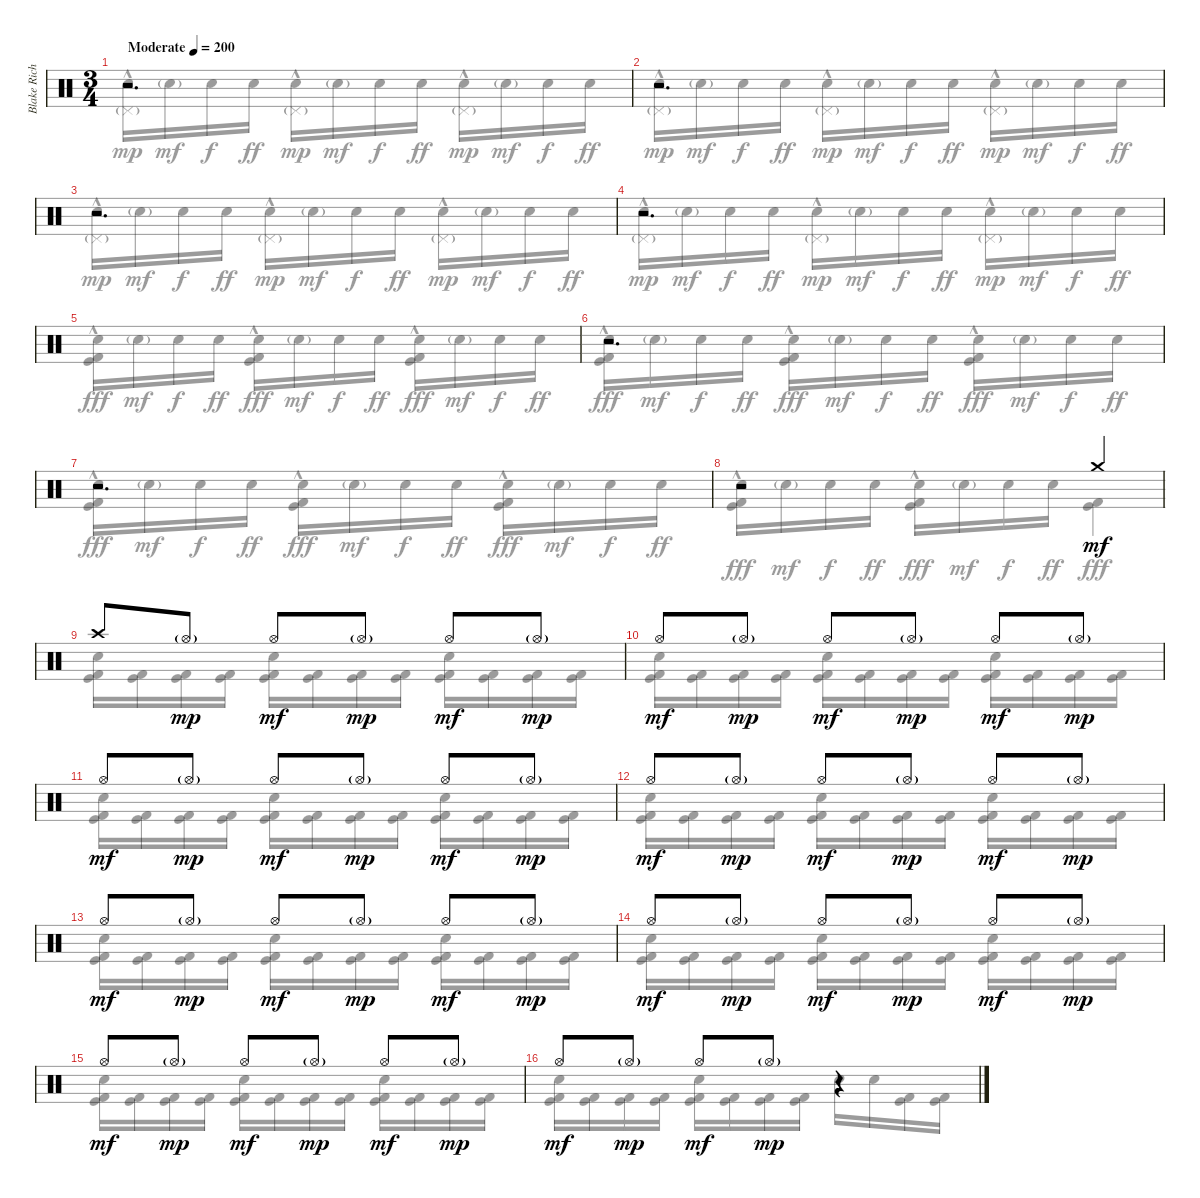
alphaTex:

\track ("Blake Richardson Drums" "Blake Rich") {instrument percussion}
\staff {score}
\articulation defaults
\voice
\ts (3 4)
\tempo (200 "Moderate")
\clef neutral
\ks c
r.2{d dy mf volume 8} |
r.2{d} |
r.2{d} |
r.2{d} |
|
r.2{d} |
r.2{d} |
r.2 "Crash medium (hit)".4 |
"Crash high (hit)".8 "Hi-Hat (open)"{g}.8{dy mp} "Hi-Hat (open)".8{dy mf} "Hi-Hat (open)"{g}.8{dy mp} "Hi-Hat (open)".8{dy mf} "Hi-Hat (open)"{g}.8{dy mp} |
"Hi-Hat (open)".8{dy mf} "Hi-Hat (open)"{g}.8{dy mp} "Hi-Hat (open)".8{dy mf} "Hi-Hat (open)"{g}.8{dy mp} "Hi-Hat (open)".8{dy mf} "Hi-Hat (open)"{g}.8{dy mp} |
"Hi-Hat (open)".8{dy mf} "Hi-Hat (open)"{g}.8{dy mp} "Hi-Hat (open)".8{dy mf} "Hi-Hat (open)"{g}.8{dy mp} "Hi-Hat (open)".8{dy mf} "Hi-Hat (open)"{g}.8{dy mp} |
"Hi-Hat (open)".8{dy mf} "Hi-Hat (open)"{g}.8{dy mp} "Hi-Hat (open)".8{dy mf} "Hi-Hat (open)"{g}.8{dy mp} "Hi-Hat (open)".8{dy mf} "Hi-Hat (open)"{g}.8{dy mp} |
"Hi-Hat (open)".8{dy mf} "Hi-Hat (open)"{g}.8{dy mp} "Hi-Hat (open)".8{dy mf} "Hi-Hat (open)"{g}.8{dy mp} "Hi-Hat (open)".8{dy mf} "Hi-Hat (open)"{g}.8{dy mp} |
"Hi-Hat (open)".8{dy mf} "Hi-Hat (open)"{g}.8{dy mp} "Hi-Hat (open)".8{dy mf} "Hi-Hat (open)"{g}.8{dy mp} "Hi-Hat (open)".8{dy mf} "Hi-Hat (open)"{g}.8{dy mp} |
"Hi-Hat (open)".8{dy mf} "Hi-Hat (open)"{g}.8{dy mp} "Hi-Hat (open)".8{dy mf} "Hi-Hat (open)"{g}.8{dy mp} "Hi-Hat (open)".8{dy mf} "Hi-Hat (open)"{g}.8{dy mp} |
"Hi-Hat (open)".8{dy mf} "Hi-Hat (open)"{g}.8{dy mp} "Hi-Hat (open)".8{dy mf} "Hi-Hat (open)"{g}.8{dy mp} r.4
\voice
\clef neutral
\ottava regular
\simile none
\ks c
("Electric Snare (hit)"{hac} "Pedal Hi-Hat (hit)"{g}).16{dy mp} "Electric Snare (hit)"{g}.16{dy mf} "Electric Snare (hit)".16{dy f} "Electric Snare (hit)".16{dy ff} ("Electric Snare (hit)"{hac} "Pedal Hi-Hat (hit)"{g}).16{dy mp} "Electric Snare (hit)"{g}.16{dy mf} "Electric Snare (hit)".16{dy f} "Electric Snare (hit)".16{dy ff} ("Electric Snare (hit)"{hac} "Pedal Hi-Hat (hit)"{g}).16{dy mp} "Electric Snare (hit)"{g}.16{dy mf} "Electric Snare (hit)".16{dy f} "Electric Snare (hit)".16{dy ff} |
("Electric Snare (hit)"{hac} "Pedal Hi-Hat (hit)"{g}).16{dy mp} "Electric Snare (hit)"{g}.16{dy mf} "Electric Snare (hit)".16{dy f} "Electric Snare (hit)".16{dy ff} ("Electric Snare (hit)"{hac} "Pedal Hi-Hat (hit)"{g}).16{dy mp} "Electric Snare (hit)"{g}.16{dy mf} "Electric Snare (hit)".16{dy f} "Electric Snare (hit)".16{dy ff} ("Electric Snare (hit)"{hac} "Pedal Hi-Hat (hit)"{g}).16{dy mp} "Electric Snare (hit)"{g}.16{dy mf} "Electric Snare (hit)".16{dy f} "Electric Snare (hit)".16{dy ff} |
("Electric Snare (hit)"{hac} "Pedal Hi-Hat (hit)"{g}).16{dy mp} "Electric Snare (hit)"{g}.16{dy mf} "Electric Snare (hit)".16{dy f} "Electric Snare (hit)".16{dy ff} ("Electric Snare (hit)"{hac} "Pedal Hi-Hat (hit)"{g}).16{dy mp} "Electric Snare (hit)"{g}.16{dy mf} "Electric Snare (hit)".16{dy f} "Electric Snare (hit)".16{dy ff} ("Electric Snare (hit)"{hac} "Pedal Hi-Hat (hit)"{g}).16{dy mp} "Electric Snare (hit)"{g}.16{dy mf} "Electric Snare (hit)".16{dy f} "Electric Snare (hit)".16{dy ff} |
("Electric Snare (hit)"{hac} "Pedal Hi-Hat (hit)"{g}).16{dy mp} "Electric Snare (hit)"{g}.16{dy mf} "Electric Snare (hit)".16{dy f} "Electric Snare (hit)".16{dy ff} ("Electric Snare (hit)"{hac} "Pedal Hi-Hat (hit)"{g}).16{dy mp} "Electric Snare (hit)"{g}.16{dy mf} "Electric Snare (hit)".16{dy f} "Electric Snare (hit)".16{dy ff} ("Electric Snare (hit)"{hac} "Pedal Hi-Hat (hit)"{g}).16{dy mp} "Electric Snare (hit)"{g}.16{dy mf} "Electric Snare (hit)".16{dy f} "Electric Snare (hit)".16{dy ff} |
("Electric Snare (hit)"{hac} "Kick (hit)" "Kick (hit) 2").16{dy fff} "Electric Snare (hit)"{g}.16{dy mf} "Electric Snare (hit)".16{dy f} "Electric Snare (hit)".16{dy ff} ("Electric Snare (hit)"{hac} "Kick (hit)" "Kick (hit) 2").16{dy fff} "Electric Snare (hit)"{g}.16{dy mf} "Electric Snare (hit)".16{dy f} "Electric Snare (hit)".16{dy ff} ("Electric Snare (hit)"{hac} "Kick (hit)" "Kick (hit) 2").16{dy fff} "Electric Snare (hit)"{g}.16{dy mf} "Electric Snare (hit)".16{dy f} "Electric Snare (hit)".16{dy ff} |
("Electric Snare (hit)"{hac} "Kick (hit)" "Kick (hit) 2").16{dy fff} "Electric Snare (hit)"{g}.16{dy mf} "Electric Snare (hit)".16{dy f} "Electric Snare (hit)".16{dy ff} ("Electric Snare (hit)"{hac} "Kick (hit)" "Kick (hit) 2").16{dy fff} "Electric Snare (hit)"{g}.16{dy mf} "Electric Snare (hit)".16{dy f} "Electric Snare (hit)".16{dy ff} ("Electric Snare (hit)"{hac} "Kick (hit)" "Kick (hit) 2").16{dy fff} "Electric Snare (hit)"{g}.16{dy mf} "Electric Snare (hit)".16{dy f} "Electric Snare (hit)".16{dy ff} |
("Electric Snare (hit)"{hac} "Kick (hit)" "Kick (hit) 2").16{dy fff} "Electric Snare (hit)"{g}.16{dy mf} "Electric Snare (hit)".16{dy f} "Electric Snare (hit)".16{dy ff} ("Electric Snare (hit)"{hac} "Kick (hit)" "Kick (hit) 2").16{dy fff} "Electric Snare (hit)"{g}.16{dy mf} "Electric Snare (hit)".16{dy f} "Electric Snare (hit)".16{dy ff} ("Electric Snare (hit)"{hac} "Kick (hit)" "Kick (hit) 2").16{dy fff} "Electric Snare (hit)"{g}.16{dy mf} "Electric Snare (hit)".16{dy f} "Electric Snare (hit)".16{dy ff} |
("Electric Snare (hit)"{hac} "Kick (hit)" "Kick (hit) 2").16{dy fff} "Electric Snare (hit)"{g}.16{dy mf} "Electric Snare (hit)".16{dy f} "Electric Snare (hit)".16{dy ff} ("Electric Snare (hit)"{hac} "Kick (hit)" "Kick (hit) 2").16{dy fff} "Electric Snare (hit)"{g}.16{dy mf} "Electric Snare (hit)".16{dy f} "Electric Snare (hit)".16{dy ff} ("Kick (hit)" "Kick (hit) 2").4{dy fff} |
("Electric Snare (hit)" "Kick (hit)" "Kick (hit) 2").16 ("Kick (hit)" "Kick (hit) 2").16 ("Kick (hit)" "Kick (hit) 2").16 ("Kick (hit)" "Kick (hit) 2").16 ("Electric Snare (hit)" "Kick (hit)" "Kick (hit) 2").16 ("Kick (hit)" "Kick (hit) 2").16 ("Kick (hit)" "Kick (hit) 2").16 ("Kick (hit)" "Kick (hit) 2").16 ("Electric Snare (hit)" "Kick (hit)" "Kick (hit) 2").16 ("Kick (hit)" "Kick (hit) 2").16 ("Kick (hit)" "Kick (hit) 2").16 ("Kick (hit)" "Kick (hit) 2").16 |
("Electric Snare (hit)" "Kick (hit)" "Kick (hit) 2").16 ("Kick (hit)" "Kick (hit) 2").16 ("Kick (hit)" "Kick (hit) 2").16 ("Kick (hit)" "Kick (hit) 2").16 ("Electric Snare (hit)" "Kick (hit)" "Kick (hit) 2").16 ("Kick (hit)" "Kick (hit) 2").16 ("Kick (hit)" "Kick (hit) 2").16 ("Kick (hit)" "Kick (hit) 2").16 ("Electric Snare (hit)" "Kick (hit)" "Kick (hit) 2").16 ("Kick (hit)" "Kick (hit) 2").16 ("Kick (hit)" "Kick (hit) 2").16 ("Kick (hit)" "Kick (hit) 2").16 |
("Electric Snare (hit)" "Kick (hit)" "Kick (hit) 2").16 ("Kick (hit)" "Kick (hit) 2").16 ("Kick (hit)" "Kick (hit) 2").16 ("Kick (hit)" "Kick (hit) 2").16 ("Electric Snare (hit)" "Kick (hit)" "Kick (hit) 2").16 ("Kick (hit)" "Kick (hit) 2").16 ("Kick (hit)" "Kick (hit) 2").16 ("Kick (hit)" "Kick (hit) 2").16 ("Electric Snare (hit)" "Kick (hit)" "Kick (hit) 2").16 ("Kick (hit)" "Kick (hit) 2").16 ("Kick (hit)" "Kick (hit) 2").16 ("Kick (hit)" "Kick (hit) 2").16 |
("Electric Snare (hit)" "Kick (hit)" "Kick (hit) 2").16 ("Kick (hit)" "Kick (hit) 2").16 ("Kick (hit)" "Kick (hit) 2").16 ("Kick (hit)" "Kick (hit) 2").16 ("Electric Snare (hit)" "Kick (hit)" "Kick (hit) 2").16 ("Kick (hit)" "Kick (hit) 2").16 ("Kick (hit)" "Kick (hit) 2").16 ("Kick (hit)" "Kick (hit) 2").16 ("Electric Snare (hit)" "Kick (hit)" "Kick (hit) 2").16 ("Kick (hit)" "Kick (hit) 2").16 ("Kick (hit)" "Kick (hit) 2").16 ("Kick (hit)" "Kick (hit) 2").16 |
("Electric Snare (hit)" "Kick (hit)" "Kick (hit) 2").16 ("Kick (hit)" "Kick (hit) 2").16 ("Kick (hit)" "Kick (hit) 2").16 ("Kick (hit)" "Kick (hit) 2").16 ("Electric Snare (hit)" "Kick (hit)" "Kick (hit) 2").16 ("Kick (hit)" "Kick (hit) 2").16 ("Kick (hit)" "Kick (hit) 2").16 ("Kick (hit)" "Kick (hit) 2").16 ("Electric Snare (hit)" "Kick (hit)" "Kick (hit) 2").16 ("Kick (hit)" "Kick (hit) 2").16 ("Kick (hit)" "Kick (hit) 2").16 ("Kick (hit)" "Kick (hit) 2").16 |
("Electric Snare (hit)" "Kick (hit)" "Kick (hit) 2").16 ("Kick (hit)" "Kick (hit) 2").16 ("Kick (hit)" "Kick (hit) 2").16 ("Kick (hit)" "Kick (hit) 2").16 ("Electric Snare (hit)" "Kick (hit)" "Kick (hit) 2").16 ("Kick (hit)" "Kick (hit) 2").16 ("Kick (hit)" "Kick (hit) 2").16 ("Kick (hit)" "Kick (hit) 2").16 ("Electric Snare (hit)" "Kick (hit)" "Kick (hit) 2").16 ("Kick (hit)" "Kick (hit) 2").16 ("Kick (hit)" "Kick (hit) 2").16 ("Kick (hit)" "Kick (hit) 2").16 |
("Electric Snare (hit)" "Kick (hit)" "Kick (hit) 2").16 ("Kick (hit)" "Kick (hit) 2").16 ("Kick (hit)" "Kick (hit) 2").16 ("Kick (hit)" "Kick (hit) 2").16 ("Electric Snare (hit)" "Kick (hit)" "Kick (hit) 2").16 ("Kick (hit)" "Kick (hit) 2").16 ("Kick (hit)" "Kick (hit) 2").16 ("Kick (hit)" "Kick (hit) 2").16 ("Electric Snare (hit)" "Kick (hit)" "Kick (hit) 2").16 ("Kick (hit)" "Kick (hit) 2").16 ("Kick (hit)" "Kick (hit) 2").16 ("Kick (hit)" "Kick (hit) 2").16 |
("Electric Snare (hit)" "Kick (hit)" "Kick (hit) 2").16 ("Kick (hit)" "Kick (hit) 2").16 ("Kick (hit)" "Kick (hit) 2").16 ("Kick (hit)" "Kick (hit) 2").16 ("Electric Snare (hit)" "Kick (hit)" "Kick (hit) 2").16 ("Kick (hit)" "Kick (hit) 2").16 ("Kick (hit)" "Kick (hit) 2").16 ("Kick (hit)" "Kick (hit) 2").16 "Electric Snare (hit)".16 "Electric Snare (hit)".16 ("Kick (hit)" "Kick (hit) 2").16 ("Kick (hit)" "Kick (hit) 2").16
